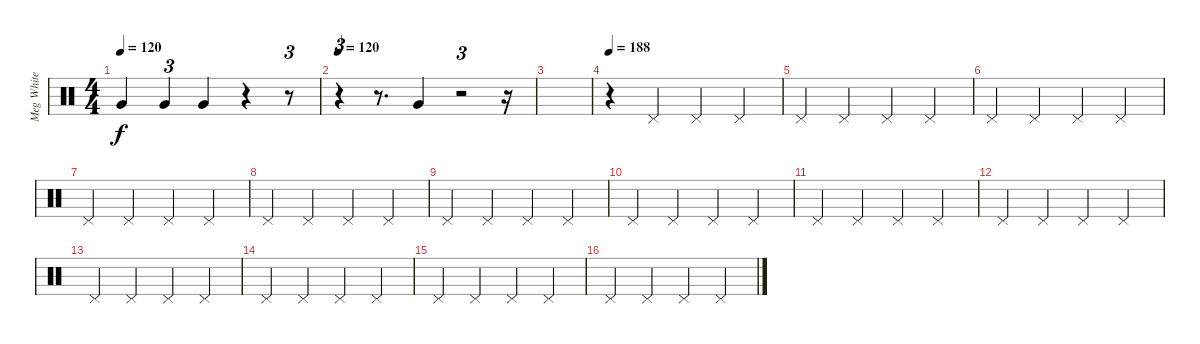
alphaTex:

\track ("Meg White" "Meg White") {instrument percussion}
\staff {score}
\articulation defaults
\ts (4 4)
\tempo 120
\clef neutral
\ks c "Very Low Tom (hit)".4{dy f} "Very Low Tom (hit)".4{tu (3 2)} "Very Low Tom (hit)".4
r.4 r.8{tu (3 2)} |
\tempo 120
r.4{tu (3 2)} r.8{d} "Very Low Tom (hit)".4 r.2{tu (3 2)} r.16 |
|
\tempo 188
r.4 "Pedal Hi-Hat (hit)".4 "Pedal Hi-Hat (hit)".4 "Pedal Hi-Hat (hit)".4 |
"Pedal Hi-Hat (hit)".4 "Pedal Hi-Hat (hit)".4 "Pedal Hi-Hat (hit)".4 "Pedal Hi-Hat (hit)".4 |
"Pedal Hi-Hat (hit)".4 "Pedal Hi-Hat (hit)".4 "Pedal Hi-Hat (hit)".4 "Pedal Hi-Hat (hit)".4 |
"Pedal Hi-Hat (hit)".4 "Pedal Hi-Hat (hit)".4 "Pedal Hi-Hat (hit)".4 "Pedal Hi-Hat (hit)".4 |
"Pedal Hi-Hat (hit)".4 "Pedal Hi-Hat (hit)".4 "Pedal Hi-Hat (hit)".4 "Pedal Hi-Hat (hit)".4 |
"Pedal Hi-Hat (hit)".4 "Pedal Hi-Hat (hit)".4 "Pedal Hi-Hat (hit)".4 "Pedal Hi-Hat (hit)".4 |
"Pedal Hi-Hat (hit)".4 "Pedal Hi-Hat (hit)".4 "Pedal Hi-Hat (hit)".4 "Pedal Hi-Hat (hit)".4 |
"Pedal Hi-Hat (hit)".4 "Pedal Hi-Hat (hit)".4 "Pedal Hi-Hat (hit)".4 "Pedal Hi-Hat (hit)".4 |
"Pedal Hi-Hat (hit)".4 "Pedal Hi-Hat (hit)".4 "Pedal Hi-Hat (hit)".4 "Pedal Hi-Hat (hit)".4 |
"Pedal Hi-Hat (hit)".4 "Pedal Hi-Hat (hit)".4 "Pedal Hi-Hat (hit)".4 "Pedal Hi-Hat (hit)".4 |
"Pedal Hi-Hat (hit)".4 "Pedal Hi-Hat (hit)".4 "Pedal Hi-Hat (hit)".4 "Pedal Hi-Hat (hit)".4 |
"Pedal Hi-Hat (hit)".4 "Pedal Hi-Hat (hit)".4 "Pedal Hi-Hat (hit)".4 "Pedal Hi-Hat (hit)".4 |
"Pedal Hi-Hat (hit)".4 "Pedal Hi-Hat (hit)".4 "Pedal Hi-Hat (hit)".4 "Pedal Hi-Hat (hit)".4
